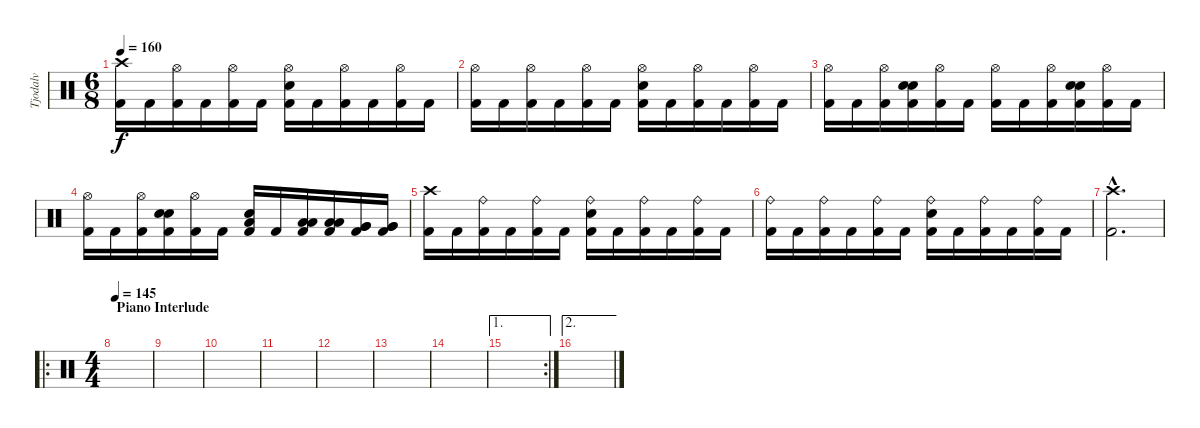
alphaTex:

\track ("Tjodalv" "Tjodalv") {instrument percussion}
\staff {score}
\articulation defaults
\ts (6 8)
\tempo 160
\clef neutral
\ks c
("Crash high (hit)" "Kick (hit) 2").16{dy f} "Kick (hit) 2".16 ("Hi-Hat (open)" "Kick (hit) 2").16 "Kick (hit) 2".16 ("Hi-Hat (open)" "Kick (hit) 2").16 "Kick (hit) 2".16 ("Hi-Hat (open)" "Snare (hit) 2" "Kick (hit) 2").16 "Kick (hit) 2".16 ("Hi-Hat (open)" "Kick (hit) 2").16 "Kick (hit) 2".16 ("Hi-Hat (open)" "Kick (hit) 2").16 "Kick (hit) 2".16 |
("Hi-Hat (open)" "Kick (hit) 2").16 "Kick (hit) 2".16 ("Hi-Hat (open)" "Kick (hit) 2").16 "Kick (hit) 2".16 ("Hi-Hat (open)" "Kick (hit) 2").16 "Kick (hit) 2".16 ("Hi-Hat (open)" "Snare (hit) 2" "Kick (hit) 2").16 "Kick (hit) 2".16 ("Hi-Hat (open)" "Kick (hit) 2").16 "Kick (hit) 2".16 ("Hi-Hat (open)" "Kick (hit) 2").16 "Kick (hit) 2".16 |
("Hi-Hat (open)" "Kick (hit) 2").16 "Kick (hit) 2".16 ("Hi-Hat (open)" "Kick (hit) 2").16 ("Snare (hit) 2" "Snare (hit) 2" "Kick (hit) 2").16 ("Hi-Hat (open)" "Kick (hit) 2").16 "Kick (hit) 2".16 ("Hi-Hat (open)" "Kick (hit) 2").16 "Kick (hit) 2".16 ("Hi-Hat (open)" "Kick (hit) 2").16 ("Snare (hit) 2" "Snare (hit) 2" "Kick (hit) 2").16 ("Hi-Hat (open)" "Kick (hit) 2").16 "Kick (hit) 2".16 |
("Hi-Hat (open)" "Kick (hit) 2").16 "Kick (hit) 2".16 ("Hi-Hat (open)" "Kick (hit) 2").16 ("Snare (hit) 2" "Snare (hit) 2" "Kick (hit) 2").16 ("Hi-Hat (open)" "Kick (hit) 2").16 "Kick (hit) 2".16 ("Low Floor Tom (hit)" "Snare (hit) 2" "Kick (hit) 2").16 "Kick (hit) 2".16 ("Low Tom (hit)" "Low Tom (hit)" "Kick (hit) 2").16 ("Low Tom (hit)" "Low Tom (hit)" "Kick (hit) 2").16 ("Very Low Tom (hit)" "Very Low Tom (hit)" "Kick (hit) 2").16 ("Very Low Tom (hit)" "Very Low Tom (hit)" "Kick (hit) 2").16 |
("Crash high (hit)" "Kick (hit) 2").16 "Kick (hit) 2".16 ("Ride (bell)" "Kick (hit) 2").16 "Kick (hit) 2".16 ("Ride (bell)" "Kick (hit) 2").16 "Kick (hit) 2".16 ("Ride (bell)" "Snare (hit) 2" "Kick (hit) 2").16 "Kick (hit) 2".16 ("Ride (bell)" "Kick (hit) 2").16 "Kick (hit) 2".16 ("Ride (bell)" "Kick (hit) 2").16 "Kick (hit) 2".16 |
("Ride (bell)" "Kick (hit) 2").16 "Kick (hit) 2".16 ("Ride (bell)" "Kick (hit) 2").16 "Kick (hit) 2".16 ("Ride (bell)" "Kick (hit) 2").16 "Kick (hit) 2".16 ("Ride (bell)" "Snare (hit) 2" "Kick (hit) 2").16 "Kick (hit) 2".16 ("Ride (bell)" "Kick (hit) 2").16 "Kick (hit) 2".16 ("Ride (bell)" "Kick (hit) 2").16 "Kick (hit) 2".16 |
("Crash high (hit)"{hac} "Kick (hit) 2"{hac}).2{d} |
\ro
\ts (4 4)
\section ("" "Piano Interlude")
\tempo 145
|
|
|
|
|
|
|
\ae 1
\rc 2
|
\ae 2
